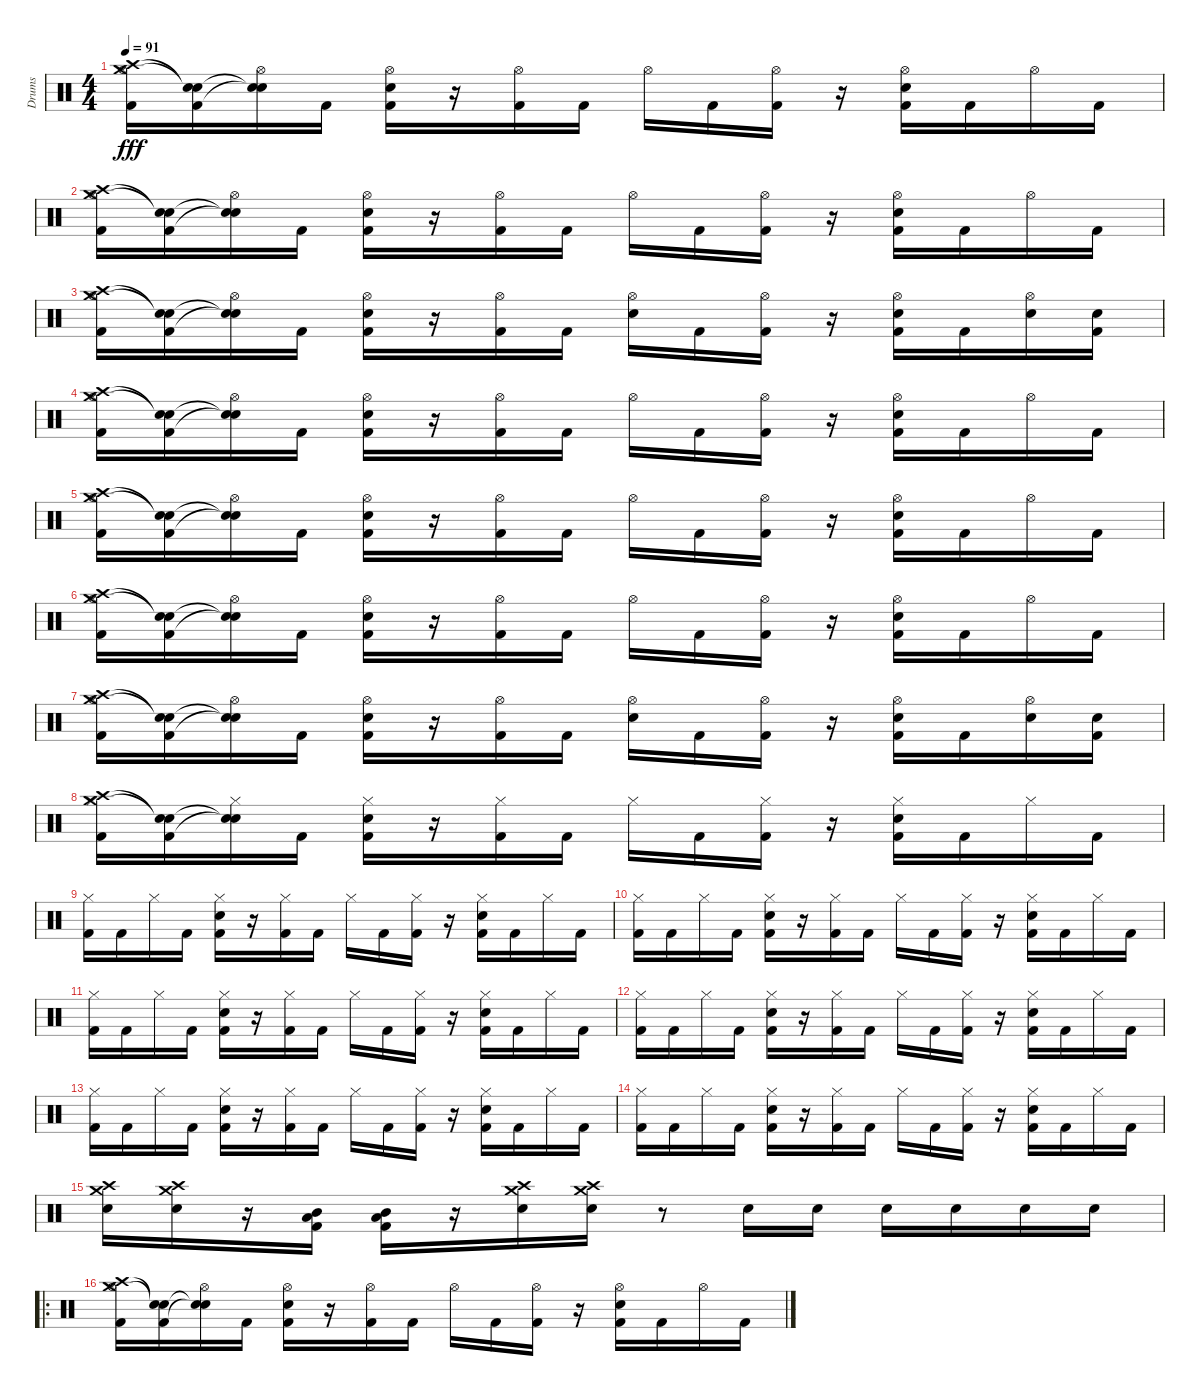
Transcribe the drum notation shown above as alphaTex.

\track ("Drums" "Drums") {instrument percussion}
\staff {score}
\articulation defaults
\ts (4 4)
\tempo 91
\clef neutral
\ks c
("Hi-Hat (open)" "Crash high (hit)" "Crash medium (hit)" "Kick (hit) 2").16{dy fff} ("Snare (hit)"{t} "Snare (hit)"{t} "Kick (hit) 2").16 ("Hi-Hat (open)" "Snare (hit)"{t} "Snare (hit)"{t}).16 "Kick (hit) 2".16 ("Hi-Hat (open)" "Snare (hit) 2" "Kick (hit) 2").16 r.16 ("Hi-Hat (open)" "Kick (hit) 2").16 "Kick (hit) 2".16 "Hi-Hat (open)".16 "Kick (hit) 2".16 ("Hi-Hat (open)" "Kick (hit) 2").16 r.16 ("Hi-Hat (open)" "Snare (hit) 2" "Kick (hit) 2").16 "Kick (hit) 2".16 "Hi-Hat (open)".16 "Kick (hit) 2".16 |
("Hi-Hat (open)" "Crash high (hit)" "Crash medium (hit)" "Kick (hit) 2").16 ("Snare (hit)"{t} "Snare (hit)"{t} "Kick (hit) 2").16 ("Hi-Hat (open)" "Snare (hit)"{t} "Snare (hit)"{t}).16 "Kick (hit) 2".16 ("Hi-Hat (open)" "Snare (hit) 2" "Kick (hit) 2").16 r.16 ("Hi-Hat (open)" "Kick (hit) 2").16 "Kick (hit) 2".16 "Hi-Hat (open)".16 "Kick (hit) 2".16 ("Hi-Hat (open)" "Kick (hit) 2").16 r.16 ("Hi-Hat (open)" "Snare (hit) 2" "Kick (hit) 2").16 "Kick (hit) 2".16 "Hi-Hat (open)".16 "Kick (hit) 2".16 |
("Hi-Hat (open)" "Crash high (hit)" "Crash medium (hit)" "Kick (hit) 2").16 ("Snare (hit)"{t} "Snare (hit)"{t} "Kick (hit) 2").16 ("Hi-Hat (open)" "Snare (hit)"{t} "Snare (hit)"{t}).16 "Kick (hit) 2".16 ("Hi-Hat (open)" "Snare (hit) 2" "Kick (hit) 2").16 r.16 ("Hi-Hat (open)" "Kick (hit) 2").16 "Kick (hit) 2".16 ("Hi-Hat (open)" "Snare (hit) 2").16 "Kick (hit) 2".16 ("Hi-Hat (open)" "Kick (hit) 2").16 r.16 ("Hi-Hat (open)" "Snare (hit) 2" "Kick (hit) 2").16 "Kick (hit) 2".16 ("Hi-Hat (open)" "Snare (hit) 2").16 ("Snare (hit) 2" "Kick (hit) 2").16 |
("Hi-Hat (open)" "Crash high (hit)" "Crash medium (hit)" "Kick (hit) 2").16 ("Snare (hit)"{t} "Snare (hit)"{t} "Kick (hit) 2").16 ("Hi-Hat (open)" "Snare (hit)"{t} "Snare (hit)"{t}).16 "Kick (hit) 2".16 ("Hi-Hat (open)" "Snare (hit) 2" "Kick (hit) 2").16 r.16 ("Hi-Hat (open)" "Kick (hit) 2").16 "Kick (hit) 2".16 "Hi-Hat (open)".16 "Kick (hit) 2".16 ("Hi-Hat (open)" "Kick (hit) 2").16 r.16 ("Hi-Hat (open)" "Snare (hit) 2" "Kick (hit) 2").16 "Kick (hit) 2".16 "Hi-Hat (open)".16 "Kick (hit) 2".16 |
("Hi-Hat (open)" "Crash high (hit)" "Crash medium (hit)" "Kick (hit) 2").16 ("Snare (hit)"{t} "Snare (hit)"{t} "Kick (hit) 2").16 ("Hi-Hat (open)" "Snare (hit)"{t} "Snare (hit)"{t}).16 "Kick (hit) 2".16 ("Hi-Hat (open)" "Snare (hit) 2" "Kick (hit) 2").16 r.16 ("Hi-Hat (open)" "Kick (hit) 2").16 "Kick (hit) 2".16 "Hi-Hat (open)".16 "Kick (hit) 2".16 ("Hi-Hat (open)" "Kick (hit) 2").16 r.16 ("Hi-Hat (open)" "Snare (hit) 2" "Kick (hit) 2").16 "Kick (hit) 2".16 "Hi-Hat (open)".16 "Kick (hit) 2".16 |
("Hi-Hat (open)" "Crash high (hit)" "Crash medium (hit)" "Kick (hit) 2").16 ("Snare (hit)"{t} "Snare (hit)"{t} "Kick (hit) 2").16 ("Hi-Hat (open)" "Snare (hit)"{t} "Snare (hit)"{t}).16 "Kick (hit) 2".16 ("Hi-Hat (open)" "Snare (hit) 2" "Kick (hit) 2").16 r.16 ("Hi-Hat (open)" "Kick (hit) 2").16 "Kick (hit) 2".16 "Hi-Hat (open)".16 "Kick (hit) 2".16 ("Hi-Hat (open)" "Kick (hit) 2").16 r.16 ("Hi-Hat (open)" "Snare (hit) 2" "Kick (hit) 2").16 "Kick (hit) 2".16 "Hi-Hat (open)".16 "Kick (hit) 2".16 |
("Hi-Hat (open)" "Crash high (hit)" "Crash medium (hit)" "Kick (hit) 2").16 ("Snare (hit)"{t} "Snare (hit)"{t} "Kick (hit) 2").16 ("Hi-Hat (open)" "Snare (hit)"{t} "Snare (hit)"{t}).16 "Kick (hit) 2".16 ("Hi-Hat (open)" "Snare (hit) 2" "Kick (hit) 2").16 r.16 ("Hi-Hat (open)" "Kick (hit) 2").16 "Kick (hit) 2".16 ("Hi-Hat (open)" "Snare (hit) 2").16 "Kick (hit) 2".16 ("Hi-Hat (open)" "Kick (hit) 2").16 r.16 ("Hi-Hat (open)" "Snare (hit) 2" "Kick (hit) 2").16 "Kick (hit) 2".16 ("Hi-Hat (open)" "Snare (hit) 2").16 ("Snare (hit) 2" "Kick (hit) 2").16 |
("Hi-Hat (closed)" "Crash high (hit)" "Crash medium (hit)" "Kick (hit) 2").16 ("Snare (hit)"{t} "Snare (hit)"{t} "Kick (hit) 2").16 ("Hi-Hat (closed)" "Snare (hit)"{t} "Snare (hit)"{t}).16 "Kick (hit) 2".16 ("Hi-Hat (closed)" "Snare (hit) 2" "Kick (hit) 2").16 r.16 ("Hi-Hat (closed)" "Kick (hit) 2").16 "Kick (hit) 2".16 "Hi-Hat (closed)".16 "Kick (hit) 2".16 ("Hi-Hat (closed)" "Kick (hit) 2").16 r.16 ("Hi-Hat (closed)" "Snare (hit) 2" "Kick (hit) 2").16 "Kick (hit) 2".16 "Hi-Hat (closed)".16 "Kick (hit) 2".16 |
("Hi-Hat (closed)" "Kick (hit) 2").16 "Kick (hit) 2".16 "Hi-Hat (closed)".16 "Kick (hit) 2".16 ("Hi-Hat (closed)" "Snare (hit) 2" "Kick (hit) 2").16 r.16 ("Hi-Hat (closed)" "Kick (hit) 2").16 "Kick (hit) 2".16 "Hi-Hat (closed)".16 "Kick (hit) 2".16 ("Hi-Hat (closed)" "Kick (hit) 2").16 r.16 ("Hi-Hat (closed)" "Snare (hit) 2" "Kick (hit) 2").16 "Kick (hit) 2".16 "Hi-Hat (closed)".16 "Kick (hit) 2".16 |
("Hi-Hat (closed)" "Kick (hit) 2").16 "Kick (hit) 2".16 "Hi-Hat (closed)".16 "Kick (hit) 2".16 ("Hi-Hat (closed)" "Snare (hit) 2" "Kick (hit) 2").16 r.16 ("Hi-Hat (closed)" "Kick (hit) 2").16 "Kick (hit) 2".16 "Hi-Hat (closed)".16 "Kick (hit) 2".16 ("Hi-Hat (closed)" "Kick (hit) 2").16 r.16 ("Hi-Hat (closed)" "Snare (hit) 2" "Kick (hit) 2").16 "Kick (hit) 2".16 "Hi-Hat (closed)".16 "Kick (hit) 2".16 |
("Hi-Hat (closed)" "Kick (hit) 2").16 "Kick (hit) 2".16 "Hi-Hat (closed)".16 "Kick (hit) 2".16 ("Hi-Hat (closed)" "Snare (hit) 2" "Kick (hit) 2").16 r.16 ("Hi-Hat (closed)" "Kick (hit) 2").16 "Kick (hit) 2".16 "Hi-Hat (closed)".16 "Kick (hit) 2".16 ("Hi-Hat (closed)" "Kick (hit) 2").16 r.16 ("Hi-Hat (closed)" "Snare (hit) 2" "Kick (hit) 2").16 "Kick (hit) 2".16 "Hi-Hat (closed)".16 "Kick (hit) 2".16 |
("Hi-Hat (closed)" "Kick (hit) 2").16 "Kick (hit) 2".16 "Hi-Hat (closed)".16 "Kick (hit) 2".16 ("Hi-Hat (closed)" "Snare (hit) 2" "Kick (hit) 2").16 r.16 ("Hi-Hat (closed)" "Kick (hit) 2").16 "Kick (hit) 2".16 "Hi-Hat (closed)".16 "Kick (hit) 2".16 ("Hi-Hat (closed)" "Kick (hit) 2").16 r.16 ("Hi-Hat (closed)" "Snare (hit) 2" "Kick (hit) 2").16 "Kick (hit) 2".16 "Hi-Hat (closed)".16 "Kick (hit) 2".16 |
("Hi-Hat (closed)" "Kick (hit) 2").16 "Kick (hit) 2".16 "Hi-Hat (closed)".16 "Kick (hit) 2".16 ("Hi-Hat (closed)" "Snare (hit) 2" "Kick (hit) 2").16 r.16 ("Hi-Hat (closed)" "Kick (hit) 2").16 "Kick (hit) 2".16 "Hi-Hat (closed)".16 "Kick (hit) 2".16 ("Hi-Hat (closed)" "Kick (hit) 2").16 r.16 ("Hi-Hat (closed)" "Snare (hit) 2" "Kick (hit) 2").16 "Kick (hit) 2".16 "Hi-Hat (closed)".16 "Kick (hit) 2".16 |
("Hi-Hat (closed)" "Kick (hit) 2").16 "Kick (hit) 2".16 "Hi-Hat (closed)".16 "Kick (hit) 2".16 ("Hi-Hat (closed)" "Snare (hit) 2" "Kick (hit) 2").16 r.16 ("Hi-Hat (closed)" "Kick (hit) 2").16 "Kick (hit) 2".16 "Hi-Hat (closed)".16 "Kick (hit) 2".16 ("Hi-Hat (closed)" "Kick (hit) 2").16 r.16 ("Hi-Hat (closed)" "Snare (hit) 2" "Kick (hit) 2").16 "Kick (hit) 2".16 "Hi-Hat (closed)".16 "Kick (hit) 2".16 |
("Crash high (hit)" "Crash medium (hit)" "Snare (hit) 2").16 ("Crash high (hit)" "Crash medium (hit)" "Snare (hit) 2").16 r.16 ("Mid Tom (hit)" "Low Tom (hit)" "Kick (hit) 2").16 ("Mid Tom (hit)" "Low Tom (hit)" "Kick (hit) 2").16 r.16 ("Crash high (hit)" "Crash medium (hit)" "Snare (hit) 2").16 ("Crash high (hit)" "Crash medium (hit)" "Snare (hit) 2").16 r.8 "Snare (hit) 2".16 "Snare (hit) 2".16 "Snare (hit) 2".16 "Snare (hit) 2".16 "Snare (hit) 2".16 "Snare (hit) 2".16 |
\ro
("Hi-Hat (open)" "Crash high (hit)" "Crash medium (hit)" "Kick (hit) 2").16 ("Snare (hit)"{t} "Snare (hit)"{t} "Kick (hit) 2").16 ("Hi-Hat (open)" "Snare (hit)"{t} "Snare (hit)"{t}).16 "Kick (hit) 2".16 ("Hi-Hat (open)" "Snare (hit) 2" "Kick (hit) 2").16 r.16 ("Hi-Hat (open)" "Kick (hit) 2").16 "Kick (hit) 2".16 "Hi-Hat (open)".16 "Kick (hit) 2".16 ("Hi-Hat (open)" "Kick (hit) 2").16 r.16 ("Hi-Hat (open)" "Snare (hit) 2" "Kick (hit) 2").16 "Kick (hit) 2".16 "Hi-Hat (open)".16 "Kick (hit) 2".16
